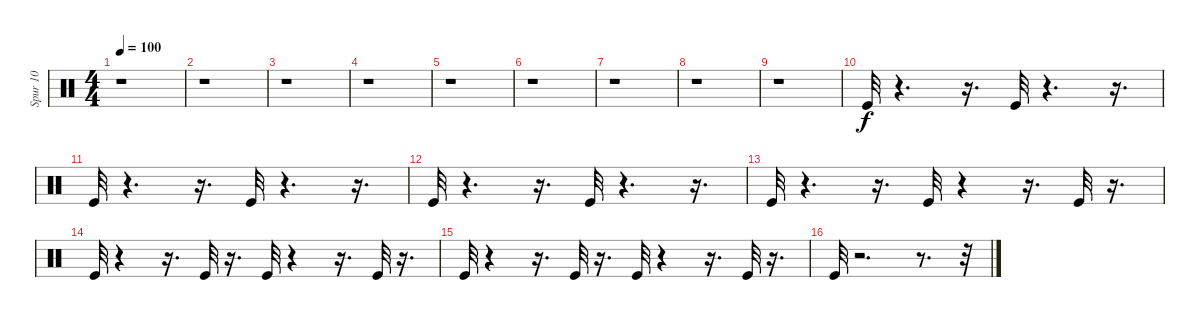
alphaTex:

\track ("Spur 10" "Spur 10") {instrument percussion}
\staff {score}
\articulation defaults
\ts (4 4)
\tempo 100
\clef neutral
\ks c
r.1{dy f} |
r.1 |
r.1 |
r.1 |
r.1 |
r.1 |
r.1 |
r.1 |
r.1 |
"Kick (hit)".32 r.4{d} r.16{d} "Kick (hit)".32 r.4{d} r.16{d} |
"Kick (hit)".32 r.4{d} r.16{d} "Kick (hit)".32 r.4{d} r.16{d} |
"Kick (hit)".32 r.4{d} r.16{d} "Kick (hit)".32 r.4{d} r.16{d} |
"Kick (hit)".32 r.4{d} r.16{d} "Kick (hit)".32 r.4 r.16{d} "Kick (hit)".32 r.16{d} |
"Kick (hit)".32 r.4 r.16{d} "Kick (hit)".32 r.16{d} "Kick (hit)".32 r.4 r.16{d} "Kick (hit)".32 r.16{d} |
"Kick (hit)".32 r.4 r.16{d} "Kick (hit)".32 r.16{d} "Kick (hit)".32 r.4 r.16{d} "Kick (hit)".32 r.16{d} |
"Kick (hit)".32 r.2{d} r.8{d} r.32
